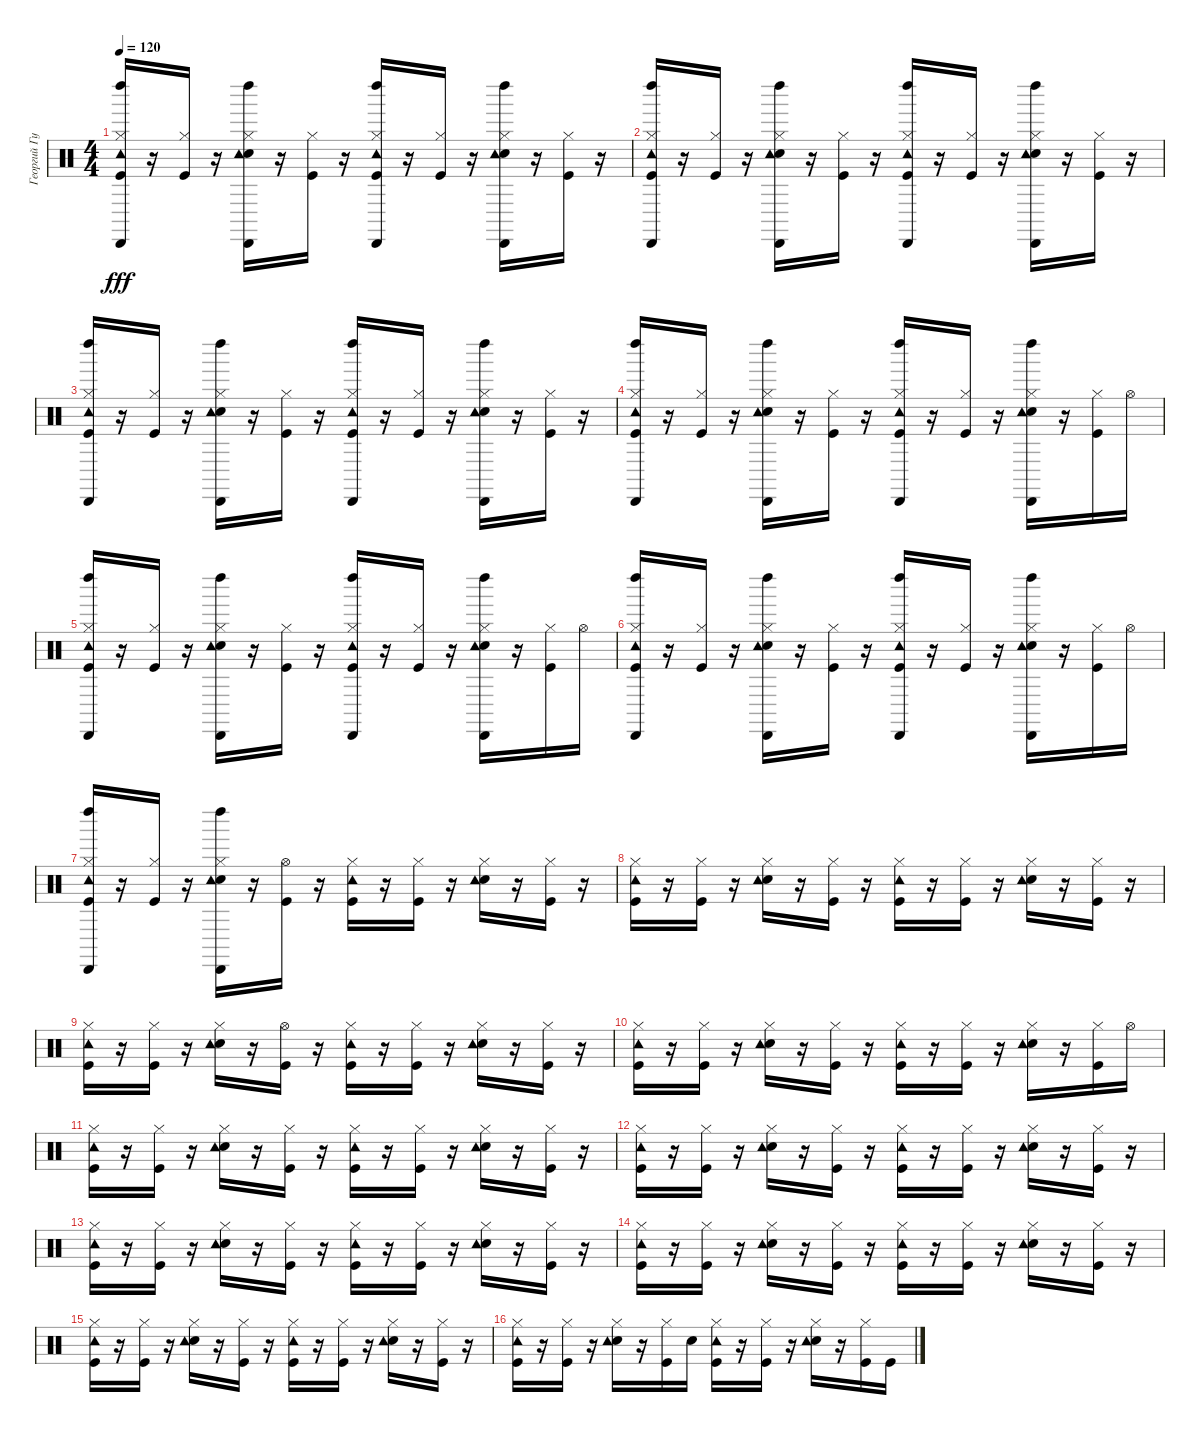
\track ("Георгий Гурьянов (ударные)" "Георгий Гу") {instrument percussion}
\staff {score}
\articulation defaults
\ts (4 4)
\tempo 120
\clef neutral
\ks c
("Kick (hit)" "Hi-Hat (closed)" "Tambourine (hit)" "Left Maraca (hit)" "Cabasa (hit)").16{dy fff} r.16 ("Kick (hit)" "Hi-Hat (closed)").16 r.16 ("Snare (hit) 2" "Hi-Hat (closed)" "Tambourine (hit)" "Left Maraca (hit)" "Cabasa (hit)").16 r.16 ("Kick (hit)" "Hi-Hat (closed)").16 r.16 ("Kick (hit)" "Hi-Hat (closed)" "Tambourine (hit)" "Left Maraca (hit)" "Cabasa (hit)").16 r.16 ("Kick (hit)" "Hi-Hat (closed)").16 r.16 ("Snare (hit) 2" "Hi-Hat (closed)" "Tambourine (hit)" "Left Maraca (hit)" "Cabasa (hit)").16 r.16 ("Kick (hit)" "Hi-Hat (closed)").16 r.16 |
("Kick (hit)" "Hi-Hat (closed)" "Tambourine (hit)" "Left Maraca (hit)" "Cabasa (hit)").16 r.16 ("Kick (hit)" "Hi-Hat (closed)").16 r.16 ("Snare (hit) 2" "Hi-Hat (closed)" "Tambourine (hit)" "Left Maraca (hit)" "Cabasa (hit)").16 r.16 ("Kick (hit)" "Hi-Hat (closed)").16 r.16 ("Kick (hit)" "Hi-Hat (closed)" "Tambourine (hit)" "Left Maraca (hit)" "Cabasa (hit)").16 r.16 ("Kick (hit)" "Hi-Hat (closed)").16 r.16 ("Snare (hit) 2" "Hi-Hat (closed)" "Tambourine (hit)" "Left Maraca (hit)" "Cabasa (hit)").16 r.16 ("Kick (hit)" "Hi-Hat (closed)").16 r.16 |
("Kick (hit)" "Hi-Hat (closed)" "Tambourine (hit)" "Left Maraca (hit)" "Cabasa (hit)").16 r.16 ("Kick (hit)" "Hi-Hat (closed)").16 r.16 ("Snare (hit) 2" "Hi-Hat (closed)" "Tambourine (hit)" "Left Maraca (hit)" "Cabasa (hit)").16 r.16 ("Kick (hit)" "Hi-Hat (closed)").16 r.16 ("Kick (hit)" "Hi-Hat (closed)" "Tambourine (hit)" "Left Maraca (hit)" "Cabasa (hit)").16 r.16 ("Kick (hit)" "Hi-Hat (closed)").16 r.16 ("Snare (hit) 2" "Hi-Hat (closed)" "Tambourine (hit)" "Left Maraca (hit)" "Cabasa (hit)").16 r.16 ("Kick (hit)" "Hi-Hat (closed)").16 r.16 |
("Kick (hit)" "Hi-Hat (closed)" "Tambourine (hit)" "Left Maraca (hit)" "Cabasa (hit)").16 r.16 ("Kick (hit)" "Hi-Hat (closed)").16 r.16 ("Snare (hit) 2" "Hi-Hat (closed)" "Tambourine (hit)" "Left Maraca (hit)" "Cabasa (hit)").16 r.16 ("Kick (hit)" "Hi-Hat (closed)").16 r.16 ("Kick (hit)" "Hi-Hat (closed)" "Tambourine (hit)" "Left Maraca (hit)" "Cabasa (hit)").16 r.16 ("Kick (hit)" "Hi-Hat (closed)").16 r.16 ("Snare (hit) 2" "Hi-Hat (closed)" "Tambourine (hit)" "Left Maraca (hit)" "Cabasa (hit)").16 r.16 ("Kick (hit)" "Hi-Hat (closed)").16 "Hi-Hat (open)".16 |
("Kick (hit)" "Hi-Hat (closed)" "Tambourine (hit)" "Left Maraca (hit)" "Cabasa (hit)").16 r.16 ("Kick (hit)" "Hi-Hat (closed)").16 r.16 ("Snare (hit) 2" "Hi-Hat (closed)" "Tambourine (hit)" "Left Maraca (hit)" "Cabasa (hit)").16 r.16 ("Kick (hit)" "Hi-Hat (closed)").16 r.16 ("Kick (hit)" "Hi-Hat (closed)" "Tambourine (hit)" "Left Maraca (hit)" "Cabasa (hit)").16 r.16 ("Kick (hit)" "Hi-Hat (closed)").16 r.16 ("Snare (hit) 2" "Hi-Hat (closed)" "Tambourine (hit)" "Left Maraca (hit)" "Cabasa (hit)").16 r.16 ("Kick (hit)" "Hi-Hat (closed)").16 "Hi-Hat (open)".16 |
("Kick (hit)" "Hi-Hat (closed)" "Tambourine (hit)" "Left Maraca (hit)" "Cabasa (hit)").16 r.16 ("Kick (hit)" "Hi-Hat (closed)").16 r.16 ("Snare (hit) 2" "Hi-Hat (closed)" "Tambourine (hit)" "Left Maraca (hit)" "Cabasa (hit)").16 r.16 ("Kick (hit)" "Hi-Hat (closed)").16 r.16 ("Kick (hit)" "Hi-Hat (closed)" "Tambourine (hit)" "Left Maraca (hit)" "Cabasa (hit)").16 r.16 ("Kick (hit)" "Hi-Hat (closed)").16 r.16 ("Snare (hit) 2" "Hi-Hat (closed)" "Tambourine (hit)" "Left Maraca (hit)" "Cabasa (hit)").16 r.16 ("Kick (hit)" "Hi-Hat (closed)").16 "Hi-Hat (open)".16 |
("Kick (hit)" "Hi-Hat (closed)" "Tambourine (hit)" "Left Maraca (hit)" "Cabasa (hit)").16 r.16 ("Kick (hit)" "Hi-Hat (closed)").16 r.16 ("Snare (hit) 2" "Hi-Hat (closed)" "Tambourine (hit)" "Left Maraca (hit)" "Cabasa (hit)").16 r.16 ("Kick (hit)" "Hi-Hat (open)").16 r.16 ("Kick (hit)" "Hi-Hat (closed)" "Tambourine (hit)").16 r.16 ("Kick (hit)" "Hi-Hat (closed)").16 r.16 ("Snare (hit) 2" "Hi-Hat (closed)" "Tambourine (hit)").16 r.16 ("Kick (hit)" "Hi-Hat (closed)").16 r.16 |
("Kick (hit)" "Hi-Hat (closed)" "Tambourine (hit)").16 r.16 ("Kick (hit)" "Hi-Hat (closed)").16 r.16 ("Snare (hit) 2" "Hi-Hat (closed)" "Tambourine (hit)").16 r.16 ("Kick (hit)" "Hi-Hat (closed)").16 r.16 ("Kick (hit)" "Hi-Hat (closed)" "Tambourine (hit)").16 r.16 ("Kick (hit)" "Hi-Hat (closed)").16 r.16 ("Snare (hit) 2" "Hi-Hat (closed)" "Tambourine (hit)").16 r.16 ("Kick (hit)" "Hi-Hat (closed)").16 r.16 |
("Kick (hit)" "Hi-Hat (closed)" "Tambourine (hit)").16 r.16 ("Kick (hit)" "Hi-Hat (closed)").16 r.16 ("Snare (hit) 2" "Hi-Hat (closed)" "Tambourine (hit)").16 r.16 ("Kick (hit)" "Hi-Hat (open)").16 r.16 ("Kick (hit)" "Hi-Hat (closed)" "Tambourine (hit)").16 r.16 ("Kick (hit)" "Hi-Hat (closed)").16 r.16 ("Snare (hit) 2" "Hi-Hat (closed)" "Tambourine (hit)").16 r.16 ("Kick (hit)" "Hi-Hat (closed)").16 r.16 |
("Kick (hit)" "Hi-Hat (closed)" "Tambourine (hit)").16 r.16 ("Kick (hit)" "Hi-Hat (closed)").16 r.16 ("Snare (hit) 2" "Hi-Hat (closed)" "Tambourine (hit)").16 r.16 ("Kick (hit)" "Hi-Hat (closed)").16 r.16 ("Kick (hit)" "Hi-Hat (closed)" "Tambourine (hit)").16 r.16 ("Kick (hit)" "Hi-Hat (closed)").16 r.16 ("Snare (hit) 2" "Hi-Hat (closed)" "Tambourine (hit)").16 r.16 ("Kick (hit)" "Hi-Hat (closed)").16 "Hi-Hat (open)".16 |
("Kick (hit)" "Hi-Hat (closed)" "Tambourine (hit)").16 r.16 ("Kick (hit)" "Hi-Hat (closed)").16 r.16 ("Snare (hit) 2" "Hi-Hat (closed)" "Tambourine (hit)").16 r.16 ("Kick (hit)" "Hi-Hat (closed)").16 r.16 ("Kick (hit)" "Hi-Hat (closed)" "Tambourine (hit)").16 r.16 ("Kick (hit)" "Hi-Hat (closed)").16 r.16 ("Snare (hit) 2" "Hi-Hat (closed)" "Tambourine (hit)").16 r.16 ("Kick (hit)" "Hi-Hat (closed)").16 r.16 |
("Kick (hit)" "Hi-Hat (closed)" "Tambourine (hit)").16 r.16 ("Kick (hit)" "Hi-Hat (closed)").16 r.16 ("Snare (hit) 2" "Hi-Hat (closed)" "Tambourine (hit)").16 r.16 ("Kick (hit)" "Hi-Hat (closed)").16 r.16 ("Kick (hit)" "Hi-Hat (closed)" "Tambourine (hit)").16 r.16 ("Kick (hit)" "Hi-Hat (closed)").16 r.16 ("Snare (hit) 2" "Hi-Hat (closed)" "Tambourine (hit)").16 r.16 ("Kick (hit)" "Hi-Hat (closed)").16 r.16 |
("Kick (hit)" "Hi-Hat (closed)" "Tambourine (hit)").16 r.16 ("Kick (hit)" "Hi-Hat (closed)").16 r.16 ("Snare (hit) 2" "Hi-Hat (closed)" "Tambourine (hit)").16 r.16 ("Kick (hit)" "Hi-Hat (closed)").16 r.16 ("Kick (hit)" "Hi-Hat (closed)" "Tambourine (hit)").16 r.16 ("Kick (hit)" "Hi-Hat (closed)").16 r.16 ("Snare (hit) 2" "Hi-Hat (closed)" "Tambourine (hit)").16 r.16 ("Kick (hit)" "Hi-Hat (closed)").16 r.16 |
("Kick (hit)" "Hi-Hat (closed)" "Tambourine (hit)").16 r.16 ("Kick (hit)" "Hi-Hat (closed)").16 r.16 ("Snare (hit) 2" "Hi-Hat (closed)" "Tambourine (hit)").16 r.16 ("Kick (hit)" "Hi-Hat (closed)").16 r.16 ("Kick (hit)" "Hi-Hat (closed)" "Tambourine (hit)").16 r.16 ("Kick (hit)" "Hi-Hat (closed)").16 r.16 ("Snare (hit) 2" "Hi-Hat (closed)" "Tambourine (hit)").16 r.16 ("Kick (hit)" "Hi-Hat (closed)").16 r.16 |
("Kick (hit)" "Hi-Hat (closed)" "Tambourine (hit)").16 r.16 ("Kick (hit)" "Hi-Hat (closed)").16 r.16 ("Snare (hit) 2" "Hi-Hat (closed)" "Tambourine (hit)").16 r.16 ("Kick (hit)" "Hi-Hat (closed)").16 r.16 ("Kick (hit)" "Hi-Hat (closed)" "Tambourine (hit)").16 r.16 ("Kick (hit)" "Hi-Hat (closed)").16 r.16 ("Snare (hit) 2" "Hi-Hat (closed)" "Tambourine (hit)").16 r.16 ("Kick (hit)" "Hi-Hat (closed)").16 r.16 |
("Kick (hit)" "Hi-Hat (closed)" "Tambourine (hit)").16 r.16 ("Kick (hit)" "Hi-Hat (closed)").16 r.16 ("Snare (hit) 2" "Hi-Hat (closed)" "Tambourine (hit)").16 r.16 ("Kick (hit)" "Hi-Hat (closed)").16 "Snare (hit) 2".16 ("Kick (hit)" "Hi-Hat (closed)" "Tambourine (hit)").16 r.16 ("Kick (hit)" "Hi-Hat (closed)").16 r.16 ("Snare (hit) 2" "Hi-Hat (closed)" "Tambourine (hit)").16 r.16 ("Kick (hit)" "Hi-Hat (closed)").16 "Kick (hit)".16
